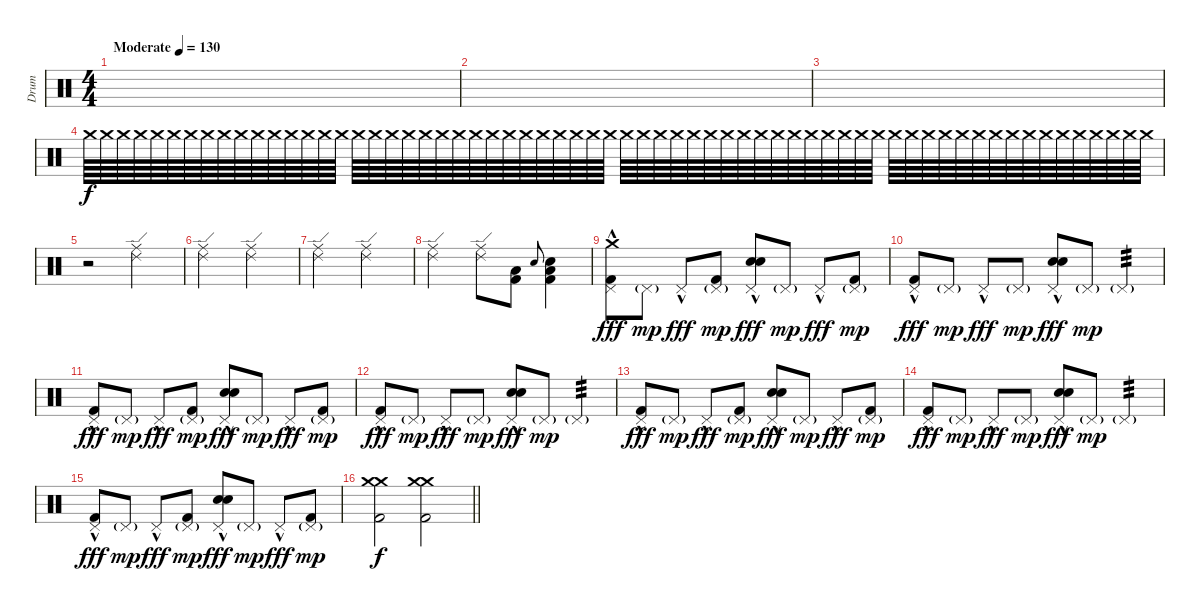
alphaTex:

\track ("Drum" "Drum") {instrument percussion}
\staff {score}
\articulation defaults
\ts (4 4)
\tempo (130 "Moderate")
\clef neutral
\ks c
|
|
|
"Crash medium (hit)".64{volume 13} "Crash medium (hit)".64 "Crash medium (hit)".64 "Crash medium (hit)".64 "Crash medium (hit)".64 "Crash medium (hit)".64 "Crash medium (hit)".64 "Crash medium (hit)".64 "Crash medium (hit)".64 "Crash medium (hit)".64 "Crash medium (hit)".64 "Crash medium (hit)".64 "Crash medium (hit)".64 "Crash medium (hit)".64 "Crash medium (hit)".64 "Crash medium (hit)".64 "Crash medium (hit)".64 "Crash medium (hit)".64 "Crash medium (hit)".64 "Crash medium (hit)".64 "Crash medium (hit)".64 "Crash medium (hit)".64 "Crash medium (hit)".64 "Crash medium (hit)".64 "Crash medium (hit)".64 "Crash medium (hit)".64 "Crash medium (hit)".64 "Crash medium (hit)".64 "Crash medium (hit)".64 "Crash medium (hit)".64 "Crash medium (hit)".64 "Crash medium (hit)".64 "Crash medium (hit)".64 "Crash medium (hit)".64 "Crash medium (hit)".64 "Crash medium (hit)".64 "Crash medium (hit)".64 "Crash medium (hit)".64 "Crash medium (hit)".64 "Crash medium (hit)".64 "Crash medium (hit)".64 "Crash medium (hit)".64 "Crash medium (hit)".64 "Crash medium (hit)".64 "Crash medium (hit)".64 "Crash medium (hit)".64 "Crash medium (hit)".64 "Crash medium (hit)".64 "Crash medium (hit)".64 "Crash medium (hit)".64 "Crash medium (hit)".64 "Crash medium (hit)".64 "Crash medium (hit)".64 "Crash medium (hit)".64 "Crash medium (hit)".64 "Crash medium (hit)".64 "Crash medium (hit)".64 "Crash medium (hit)".64 "Crash medium (hit)".64 "Crash medium (hit)".64 "Crash medium (hit)".64 "Crash medium (hit)".64 "Crash medium (hit)".64 "Crash medium (hit)".64 |
r.2 ("Ride (middle)" "Ride (edge) 2").2 |
("Ride (middle)" "Ride (edge) 2").2 ("Ride (middle)" "Ride (edge) 2").2 |
("Ride (middle)" "Ride (edge) 2").2 ("Ride (middle)" "Ride (edge) 2").2 |
("Ride (middle)" "Ride (edge) 2").2 ("Ride (middle)" "Ride (edge) 2").8 ("Low Tom (hit)" "Kick (hit) 2").8 "Electric Snare (hit)".8{gr onbeat} ("Low Tom (hit)" "Electric Snare (hit)" "Kick (hit) 2").4 |
("Crash medium (hit)" "Kick (hit) 2" "Pedal Hi-Hat (hit)"{hac}).8{dy fff} "Pedal Hi-Hat (hit)"{g}.8{dy mp} "Pedal Hi-Hat (hit)"{hac}.8{dy fff} ("Kick (hit) 2" "Pedal Hi-Hat (hit)"{g}).8{dy mp} ("Electric Snare (hit)" "Electric Snare (hit)" "Pedal Hi-Hat (hit)"{hac}).8{dy fff} "Pedal Hi-Hat (hit)"{g}.8{dy mp} "Pedal Hi-Hat (hit)"{hac}.8{dy fff} ("Kick (hit) 2" "Pedal Hi-Hat (hit)"{g}).8{dy mp} |
("Kick (hit) 2" "Pedal Hi-Hat (hit)"{hac}).8{dy fff} "Pedal Hi-Hat (hit)"{g}.8{dy mp} "Pedal Hi-Hat (hit)"{hac}.8{dy fff} "Pedal Hi-Hat (hit)"{g}.8{dy mp} ("Electric Snare (hit)" "Electric Snare (hit)" "Pedal Hi-Hat (hit)"{hac}).8{dy fff} "Pedal Hi-Hat (hit)"{g}.8{dy mp} "Pedal Hi-Hat (hit)"{g}.4{tp 3} |
("Kick (hit) 2" "Pedal Hi-Hat (hit)"{hac}).8{dy fff} "Pedal Hi-Hat (hit)"{g}.8{dy mp} "Pedal Hi-Hat (hit)"{hac}.8{dy fff} ("Kick (hit) 2" "Pedal Hi-Hat (hit)"{g}).8{dy mp} ("Electric Snare (hit)" "Electric Snare (hit)" "Pedal Hi-Hat (hit)"{hac}).8{dy fff} "Pedal Hi-Hat (hit)"{g}.8{dy mp} "Pedal Hi-Hat (hit)"{hac}.8{dy fff} ("Kick (hit) 2" "Pedal Hi-Hat (hit)"{g}).8{dy mp} |
("Kick (hit) 2" "Pedal Hi-Hat (hit)"{hac}).8{dy fff} "Pedal Hi-Hat (hit)"{g}.8{dy mp} "Pedal Hi-Hat (hit)"{hac}.8{dy fff} "Pedal Hi-Hat (hit)"{g}.8{dy mp} ("Electric Snare (hit)" "Electric Snare (hit)" "Pedal Hi-Hat (hit)"{hac}).8{dy fff} "Pedal Hi-Hat (hit)"{g}.8{dy mp} "Pedal Hi-Hat (hit)"{g}.4{tp 3} |
("Kick (hit) 2" "Pedal Hi-Hat (hit)"{hac}).8{dy fff} "Pedal Hi-Hat (hit)"{g}.8{dy mp} "Pedal Hi-Hat (hit)"{hac}.8{dy fff} ("Kick (hit) 2" "Pedal Hi-Hat (hit)"{g}).8{dy mp} ("Electric Snare (hit)" "Electric Snare (hit)" "Pedal Hi-Hat (hit)"{hac}).8{dy fff} "Pedal Hi-Hat (hit)"{g}.8{dy mp} "Pedal Hi-Hat (hit)"{hac}.8{dy fff} ("Kick (hit) 2" "Pedal Hi-Hat (hit)"{g}).8{dy mp} |
("Kick (hit) 2" "Pedal Hi-Hat (hit)"{hac}).8{dy fff} "Pedal Hi-Hat (hit)"{g}.8{dy mp} "Pedal Hi-Hat (hit)"{hac}.8{dy fff} "Pedal Hi-Hat (hit)"{g}.8{dy mp} ("Electric Snare (hit)" "Electric Snare (hit)" "Pedal Hi-Hat (hit)"{hac}).8{dy fff} "Pedal Hi-Hat (hit)"{g}.8{dy mp} "Pedal Hi-Hat (hit)"{g}.4{tp 3} |
("Kick (hit) 2" "Pedal Hi-Hat (hit)"{hac}).8{dy fff} "Pedal Hi-Hat (hit)"{g}.8{dy mp} "Pedal Hi-Hat (hit)"{hac}.8{dy fff} ("Kick (hit) 2" "Pedal Hi-Hat (hit)"{g}).8{dy mp} ("Electric Snare (hit)" "Electric Snare (hit)" "Pedal Hi-Hat (hit)"{hac}).8{dy fff} "Pedal Hi-Hat (hit)"{g}.8{dy mp} "Pedal Hi-Hat (hit)"{hac}.8{dy fff} ("Kick (hit) 2" "Pedal Hi-Hat (hit)"{g}).8{dy mp} |
\barLineRight lightlight
("Crash medium (hit)" "Crash medium (hit)" "Kick (hit) 2").2{dy f} ("Crash medium (hit)" "Crash medium (hit)" "Kick (hit) 2").2
